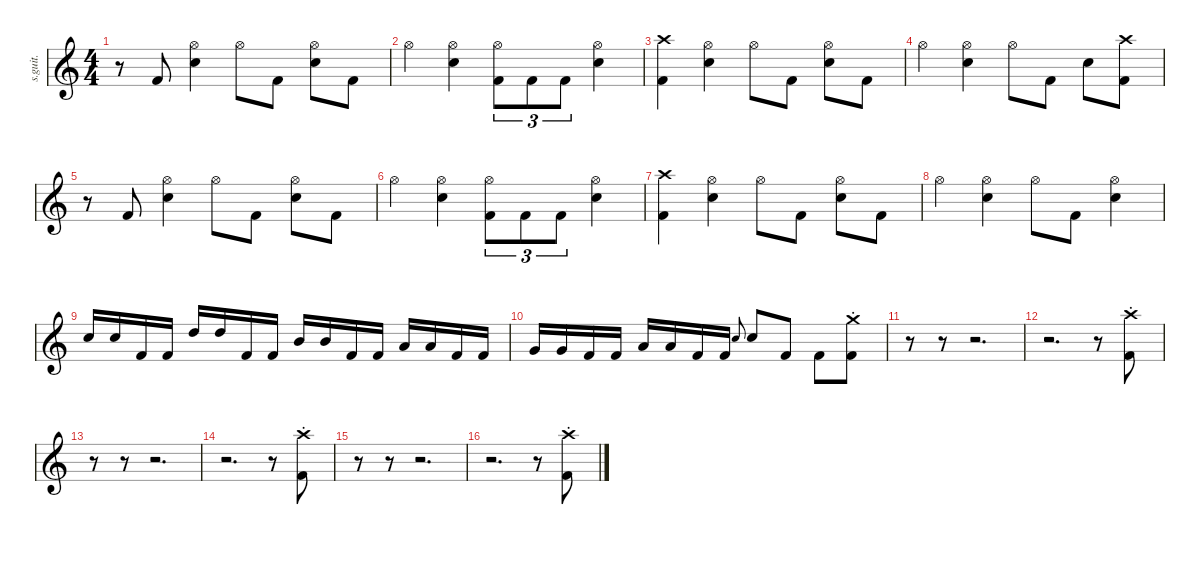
\defaultSystemsLayout 4
\hideDynamics
\bracketExtendMode nobrackets
\track ("Nick Menza (Drums)" "s.guit.") {instrument percussion}
\staff {score}
\articulation defaults
\ts (4 4)
\tempo (196 hide)
\clef g2
\ks c
r.8{dy f} "Kick (hit) 2".8{lyrics (0 "") lyrics (1 "") lyrics (2 "") lyrics (3 "") lyrics (4 "") dy fff} ("Hi-Hat (open)" "Snare (hit) 2").4{lyrics (0 "") lyrics (1 "") lyrics (2 "") lyrics (3 "") lyrics (4 "") dy f} "Hi-Hat (open)".8{lyrics (0 "") lyrics (1 "") lyrics (2 "") lyrics (3 "") lyrics (4 "")} "Kick (hit) 2".8{lyrics (0 "") lyrics (1 "") lyrics (2 "") lyrics (3 "") lyrics (4 "") dy fff} ("Hi-Hat (open)" "Snare (hit) 2").8{lyrics (0 "") lyrics (1 "") lyrics (2 "") lyrics (3 "") lyrics (4 "") dy f} "Kick (hit) 2".8{lyrics (0 "") lyrics (1 "") lyrics (2 "") lyrics (3 "") lyrics (4 "") dy fff} |
"Hi-Hat (open)".4{lyrics (0 "") lyrics (1 "") lyrics (2 "") lyrics (3 "") lyrics (4 "") dy f} ("Hi-Hat (open)" "Snare (hit) 2").4{lyrics (0 "") lyrics (1 "") lyrics (2 "") lyrics (3 "") lyrics (4 "")} ("Hi-Hat (open)" "Kick (hit) 2").8{tu (3 2) lyrics (0 "") lyrics (1 "") lyrics (2 "") lyrics (3 "") lyrics (4 "")} "Kick (hit) 2".8{tu (3 2) lyrics (0 "") lyrics (1 "") lyrics (2 "") lyrics (3 "") lyrics (4 "") dy fff} "Kick (hit) 2".8{tu (3 2) lyrics (0 "") lyrics (1 "") lyrics (2 "") lyrics (3 "") lyrics (4 "")} ("Hi-Hat (open)" "Snare (hit) 2").4{lyrics (0 "") lyrics (1 "") lyrics (2 "") lyrics (3 "") lyrics (4 "") dy f} |
("Crash high (hit)" "Kick (hit) 2").4{lyrics (0 "") lyrics (1 "") lyrics (2 "") lyrics (3 "") lyrics (4 "")} ("Hi-Hat (open)" "Snare (hit) 2").4{lyrics (0 "") lyrics (1 "") lyrics (2 "") lyrics (3 "") lyrics (4 "")} "Hi-Hat (open)".8{lyrics (0 "") lyrics (1 "") lyrics (2 "") lyrics (3 "") lyrics (4 "")} "Kick (hit) 2".8{lyrics (0 "") lyrics (1 "") lyrics (2 "") lyrics (3 "") lyrics (4 "") dy fff} ("Hi-Hat (open)" "Snare (hit) 2").8{lyrics (0 "") lyrics (1 "") lyrics (2 "") lyrics (3 "") lyrics (4 "") dy f} "Kick (hit) 2".8{lyrics (0 "") lyrics (1 "") lyrics (2 "") lyrics (3 "") lyrics (4 "") dy fff} |
"Hi-Hat (open)".4{lyrics (0 "") lyrics (1 "") lyrics (2 "") lyrics (3 "") lyrics (4 "") dy f} ("Hi-Hat (open)" "Snare (hit) 2").4{lyrics (0 "") lyrics (1 "") lyrics (2 "") lyrics (3 "") lyrics (4 "")} "Hi-Hat (open)".8{lyrics (0 "") lyrics (1 "") lyrics (2 "") lyrics (3 "") lyrics (4 "")} "Kick (hit) 2".8{lyrics (0 "") lyrics (1 "") lyrics (2 "") lyrics (3 "") lyrics (4 "") dy fff} "Snare (hit) 2".8{lyrics (0 "") lyrics (1 "") lyrics (2 "") lyrics (3 "") lyrics (4 "") dy f} ("Crash high (hit)" "Kick (hit) 2").8{lyrics (0 "") lyrics (1 "") lyrics (2 "") lyrics (3 "") lyrics (4 "")} |
r.8 "Kick (hit) 2".8{lyrics (0 "") lyrics (1 "") lyrics (2 "") lyrics (3 "") lyrics (4 "") dy fff} ("Hi-Hat (open)" "Snare (hit) 2").4{lyrics (0 "") lyrics (1 "") lyrics (2 "") lyrics (3 "") lyrics (4 "") dy f} "Hi-Hat (open)".8{lyrics (0 "") lyrics (1 "") lyrics (2 "") lyrics (3 "") lyrics (4 "")} "Kick (hit) 2".8{lyrics (0 "") lyrics (1 "") lyrics (2 "") lyrics (3 "") lyrics (4 "") dy fff} ("Hi-Hat (open)" "Snare (hit) 2").8{lyrics (0 "") lyrics (1 "") lyrics (2 "") lyrics (3 "") lyrics (4 "") dy f} "Kick (hit) 2".8{lyrics (0 "") lyrics (1 "") lyrics (2 "") lyrics (3 "") lyrics (4 "") dy fff} |
"Hi-Hat (open)".4{lyrics (0 "") lyrics (1 "") lyrics (2 "") lyrics (3 "") lyrics (4 "") dy f} ("Hi-Hat (open)" "Snare (hit) 2").4{lyrics (0 "") lyrics (1 "") lyrics (2 "") lyrics (3 "") lyrics (4 "")} ("Hi-Hat (open)" "Kick (hit) 2").8{tu (3 2) lyrics (0 "") lyrics (1 "") lyrics (2 "") lyrics (3 "") lyrics (4 "")} "Kick (hit) 2".8{tu (3 2) lyrics (0 "") lyrics (1 "") lyrics (2 "") lyrics (3 "") lyrics (4 "") dy fff} "Kick (hit) 2".8{tu (3 2) lyrics (0 "") lyrics (1 "") lyrics (2 "") lyrics (3 "") lyrics (4 "")} ("Hi-Hat (open)" "Snare (hit) 2").4{lyrics (0 "") lyrics (1 "") lyrics (2 "") lyrics (3 "") lyrics (4 "") dy f} |
("Crash high (hit)" "Kick (hit) 2").4{lyrics (0 "") lyrics (1 "") lyrics (2 "") lyrics (3 "") lyrics (4 "")} ("Hi-Hat (open)" "Snare (hit) 2").4{lyrics (0 "") lyrics (1 "") lyrics (2 "") lyrics (3 "") lyrics (4 "")} "Hi-Hat (open)".8{lyrics (0 "") lyrics (1 "") lyrics (2 "") lyrics (3 "") lyrics (4 "")} "Kick (hit) 2".8{lyrics (0 "") lyrics (1 "") lyrics (2 "") lyrics (3 "") lyrics (4 "") dy fff} ("Hi-Hat (open)" "Snare (hit) 2").8{lyrics (0 "") lyrics (1 "") lyrics (2 "") lyrics (3 "") lyrics (4 "") dy f} "Kick (hit) 2".8{lyrics (0 "") lyrics (1 "") lyrics (2 "") lyrics (3 "") lyrics (4 "") dy fff} |
"Hi-Hat (open)".4{lyrics (0 "") lyrics (1 "") lyrics (2 "") lyrics (3 "") lyrics (4 "") dy f} ("Hi-Hat (open)" "Snare (hit) 2").4{lyrics (0 "") lyrics (1 "") lyrics (2 "") lyrics (3 "") lyrics (4 "")} "Hi-Hat (open)".8{lyrics (0 "") lyrics (1 "") lyrics (2 "") lyrics (3 "") lyrics (4 "")} "Kick (hit) 2".8{lyrics (0 "") lyrics (1 "") lyrics (2 "") lyrics (3 "") lyrics (4 "") dy fff} ("Hi-Hat (open)" "Snare (hit) 2").4{lyrics (0 "") lyrics (1 "") lyrics (2 "") lyrics (3 "") lyrics (4 "") dy f} |
"Snare (hit) 2".16{lyrics (0 "") lyrics (1 "") lyrics (2 "") lyrics (3 "") lyrics (4 "")} "Snare (hit) 2".16{lyrics (0 "") lyrics (1 "") lyrics (2 "") lyrics (3 "") lyrics (4 "")} "Kick (hit) 2".16{lyrics (0 "") lyrics (1 "") lyrics (2 "") lyrics (3 "") lyrics (4 "") dy fff} "Kick (hit) 2".16{lyrics (0 "") lyrics (1 "") lyrics (2 "") lyrics (3 "") lyrics (4 "")} "High Tom (hit)".16{lyrics (0 "") lyrics (1 "") lyrics (2 "") lyrics (3 "") lyrics (4 "")} "High Tom (hit)".16{lyrics (0 "") lyrics (1 "") lyrics (2 "") lyrics (3 "") lyrics (4 "")} "Kick (hit) 2".16{lyrics (0 "") lyrics (1 "") lyrics (2 "") lyrics (3 "") lyrics (4 "")} "Kick (hit) 2".16{lyrics (0 "") lyrics (1 "") lyrics (2 "") lyrics (3 "") lyrics (4 "")} "Mid Tom (hit)".16{lyrics (0 "") lyrics (1 "") lyrics (2 "") lyrics (3 "") lyrics (4 "")} "Mid Tom (hit)".16{lyrics (0 "") lyrics (1 "") lyrics (2 "") lyrics (3 "") lyrics (4 "")} "Kick (hit) 2".16{lyrics (0 "") lyrics (1 "") lyrics (2 "") lyrics (3 "") lyrics (4 "")} "Kick (hit) 2".16{lyrics (0 "") lyrics (1 "") lyrics (2 "") lyrics (3 "") lyrics (4 "")} "Low Tom (hit)".16{lyrics (0 "") lyrics (1 "") lyrics (2 "") lyrics (3 "") lyrics (4 "")} "Low Tom (hit)".16{lyrics (0 "") lyrics (1 "") lyrics (2 "") lyrics (3 "") lyrics (4 "")} "Kick (hit) 2".16{lyrics (0 "") lyrics (1 "") lyrics (2 "") lyrics (3 "") lyrics (4 "")} "Kick (hit) 2".16{lyrics (0 "") lyrics (1 "") lyrics (2 "") lyrics (3 "") lyrics (4 "")} |
"Very Low Tom (hit)".16{lyrics (0 "") lyrics (1 "") lyrics (2 "") lyrics (3 "") lyrics (4 "") dy f} "Very Low Tom (hit)".16{lyrics (0 "") lyrics (1 "") lyrics (2 "") lyrics (3 "") lyrics (4 "")} "Kick (hit) 2".16{lyrics (0 "") lyrics (1 "") lyrics (2 "") lyrics (3 "") lyrics (4 "") dy fff} "Kick (hit) 2".16{lyrics (0 "") lyrics (1 "") lyrics (2 "") lyrics (3 "") lyrics (4 "")} "Low Floor Tom (hit)".16{lyrics (0 "") lyrics (1 "") lyrics (2 "") lyrics (3 "") lyrics (4 "") dy f} "Low Floor Tom (hit)".16{lyrics (0 "") lyrics (1 "") lyrics (2 "") lyrics (3 "") lyrics (4 "")} "Kick (hit) 2".16{lyrics (0 "") lyrics (1 "") lyrics (2 "") lyrics (3 "") lyrics (4 "") dy fff} "Kick (hit) 2".16{lyrics (0 "") lyrics (1 "") lyrics (2 "") lyrics (3 "") lyrics (4 "")} "Snare (hit) 2".8{lyrics (0 "") lyrics (1 "") lyrics (2 "") lyrics (3 "") lyrics (4 "") gr onbeat} "Snare (hit) 2".8{lyrics (0 "") lyrics (1 "") lyrics (2 "") lyrics (3 "") lyrics (4 "") dy f} "Kick (hit) 2".8{lyrics (0 "") lyrics (1 "") lyrics (2 "") lyrics (3 "") lyrics (4 "") dy fff} "Kick (hit) 2".8{lyrics (0 "") lyrics (1 "") lyrics (2 "") lyrics (3 "") lyrics (4 "")} ("Crash medium (choke)" "Kick (hit) 2").8{lyrics (0 "") lyrics (1 "") lyrics (2 "") lyrics (3 "") lyrics (4 "") dy f} |
r.8 r.8 r.2{d} |
r.2{d} r.8 ("Crash high (choke)" "Kick (hit) 2").8{lyrics (0 "") lyrics (1 "") lyrics (2 "") lyrics (3 "") lyrics (4 "")} |
r.8 r.8 r.2{d} |
r.2{d} r.8 ("Crash high (choke)" "Kick (hit) 2").8{lyrics (0 "") lyrics (1 "") lyrics (2 "") lyrics (3 "") lyrics (4 "")} |
r.8 r.8 r.2{d} |
r.2{d} r.8 ("Kick (hit) 2" "Crash high (choke)").8{lyrics (0 "") lyrics (1 "") lyrics (2 "") lyrics (3 "") lyrics (4 "")}
